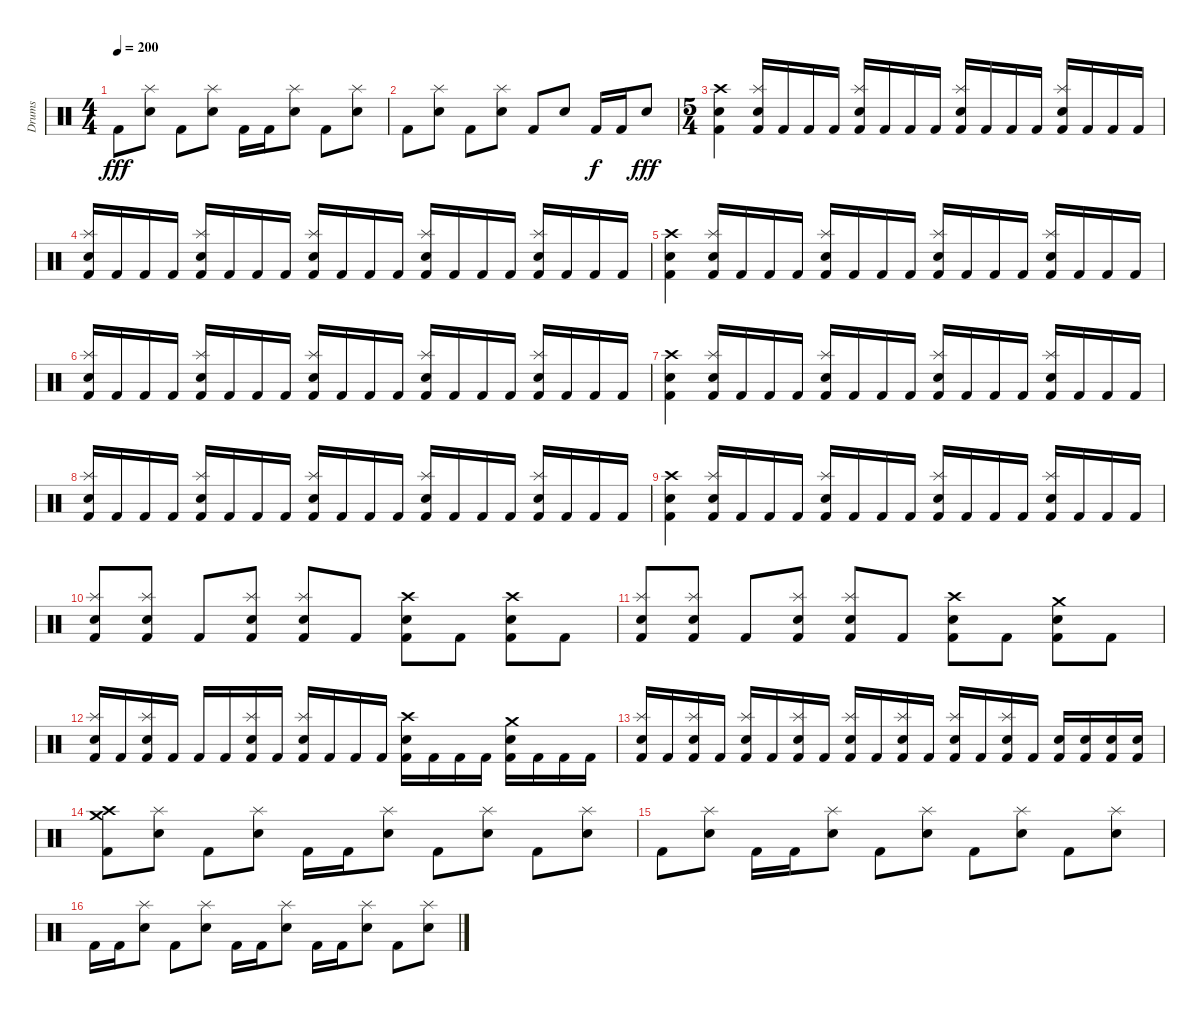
\track ("Drums" "Drums") {instrument percussion}
\staff {score}
\articulation defaults
\ts (4 4)
\tempo 200
\clef neutral
\ks c "Kick (hit) 2".8{dy fff}
("Splash (hit)" "Snare (hit) 2").8 "Kick (hit) 2".8 ("Splash (hit)" "Snare (hit) 2").8 "Kick (hit) 2".16 "Kick (hit) 2".16 ("Splash (hit)" "Snare (hit) 2").8 "Kick (hit) 2".8 ("Splash (hit)" "Snare (hit) 2").8 |
"Kick (hit) 2".8 ("Splash (hit)" "Snare (hit) 2").8 "Kick (hit) 2".8 ("Splash (hit)" "Snare (hit) 2").8 "Kick (hit) 2".8 "Snare (hit) 2".8 "Kick (hit) 2".16{dy f} "Kick (hit) 2".16 "Snare (hit) 2".8{dy fff} |
\ts (5 4)
("Crash high (hit)" "Snare (hit) 2" "Kick (hit) 2").4 ("Splash (hit)" "Snare (hit) 2" "Kick (hit) 2").16 "Kick (hit) 2".16 "Kick (hit) 2".16 "Kick (hit) 2".16 ("Splash (hit)" "Snare (hit) 2" "Kick (hit) 2").16 "Kick (hit) 2".16 "Kick (hit) 2".16 "Kick (hit) 2".16 ("Splash (hit)" "Snare (hit) 2" "Kick (hit) 2").16 "Kick (hit) 2".16 "Kick (hit) 2".16 "Kick (hit) 2".16 ("Splash (hit)" "Snare (hit) 2" "Kick (hit) 2").16 "Kick (hit) 2".16 "Kick (hit) 2".16 "Kick (hit) 2".16 |
("Splash (hit)" "Snare (hit) 2" "Kick (hit) 2").16 "Kick (hit) 2".16 "Kick (hit) 2".16 "Kick (hit) 2".16 ("Splash (hit)" "Snare (hit) 2" "Kick (hit) 2").16 "Kick (hit) 2".16 "Kick (hit) 2".16 "Kick (hit) 2".16 ("Splash (hit)" "Snare (hit) 2" "Kick (hit) 2").16 "Kick (hit) 2".16 "Kick (hit) 2".16 "Kick (hit) 2".16 ("Splash (hit)" "Snare (hit) 2" "Kick (hit) 2").16 "Kick (hit) 2".16 "Kick (hit) 2".16 "Kick (hit) 2".16 ("Splash (hit)" "Snare (hit) 2" "Kick (hit) 2").16 "Kick (hit) 2".16 "Kick (hit) 2".16 "Kick (hit) 2".16 |
("Crash high (hit)" "Snare (hit) 2" "Kick (hit) 2").4 ("Splash (hit)" "Snare (hit) 2" "Kick (hit) 2").16 "Kick (hit) 2".16 "Kick (hit) 2".16 "Kick (hit) 2".16 ("Splash (hit)" "Snare (hit) 2" "Kick (hit) 2").16 "Kick (hit) 2".16 "Kick (hit) 2".16 "Kick (hit) 2".16 ("Splash (hit)" "Snare (hit) 2" "Kick (hit) 2").16 "Kick (hit) 2".16 "Kick (hit) 2".16 "Kick (hit) 2".16 ("Splash (hit)" "Snare (hit) 2" "Kick (hit) 2").16 "Kick (hit) 2".16 "Kick (hit) 2".16 "Kick (hit) 2".16 |
("Splash (hit)" "Snare (hit) 2" "Kick (hit) 2").16 "Kick (hit) 2".16 "Kick (hit) 2".16 "Kick (hit) 2".16 ("Splash (hit)" "Snare (hit) 2" "Kick (hit) 2").16 "Kick (hit) 2".16 "Kick (hit) 2".16 "Kick (hit) 2".16 ("Splash (hit)" "Snare (hit) 2" "Kick (hit) 2").16 "Kick (hit) 2".16 "Kick (hit) 2".16 "Kick (hit) 2".16 ("Splash (hit)" "Snare (hit) 2" "Kick (hit) 2").16 "Kick (hit) 2".16 "Kick (hit) 2".16 "Kick (hit) 2".16 ("Splash (hit)" "Snare (hit) 2" "Kick (hit) 2").16 "Kick (hit) 2".16 "Kick (hit) 2".16 "Kick (hit) 2".16 |
("Crash high (hit)" "Snare (hit) 2" "Kick (hit) 2").4 ("Splash (hit)" "Snare (hit) 2" "Kick (hit) 2").16 "Kick (hit) 2".16 "Kick (hit) 2".16 "Kick (hit) 2".16 ("Splash (hit)" "Snare (hit) 2" "Kick (hit) 2").16 "Kick (hit) 2".16 "Kick (hit) 2".16 "Kick (hit) 2".16 ("Splash (hit)" "Snare (hit) 2" "Kick (hit) 2").16 "Kick (hit) 2".16 "Kick (hit) 2".16 "Kick (hit) 2".16 ("Splash (hit)" "Snare (hit) 2" "Kick (hit) 2").16 "Kick (hit) 2".16 "Kick (hit) 2".16 "Kick (hit) 2".16 |
("Splash (hit)" "Snare (hit) 2" "Kick (hit) 2").16 "Kick (hit) 2".16 "Kick (hit) 2".16 "Kick (hit) 2".16 ("Splash (hit)" "Snare (hit) 2" "Kick (hit) 2").16 "Kick (hit) 2".16 "Kick (hit) 2".16 "Kick (hit) 2".16 ("Splash (hit)" "Snare (hit) 2" "Kick (hit) 2").16 "Kick (hit) 2".16 "Kick (hit) 2".16 "Kick (hit) 2".16 ("Splash (hit)" "Snare (hit) 2" "Kick (hit) 2").16 "Kick (hit) 2".16 "Kick (hit) 2".16 "Kick (hit) 2".16 ("Splash (hit)" "Snare (hit) 2" "Kick (hit) 2").16 "Kick (hit) 2".16 "Kick (hit) 2".16 "Kick (hit) 2".16 |
("Crash high (hit)" "Snare (hit) 2" "Kick (hit) 2").4 ("Splash (hit)" "Snare (hit) 2" "Kick (hit) 2").16 "Kick (hit) 2".16 "Kick (hit) 2".16 "Kick (hit) 2".16 ("Splash (hit)" "Snare (hit) 2" "Kick (hit) 2").16 "Kick (hit) 2".16 "Kick (hit) 2".16 "Kick (hit) 2".16 ("Splash (hit)" "Snare (hit) 2" "Kick (hit) 2").16 "Kick (hit) 2".16 "Kick (hit) 2".16 "Kick (hit) 2".16 ("Splash (hit)" "Snare (hit) 2" "Kick (hit) 2").16 "Kick (hit) 2".16 "Kick (hit) 2".16 "Kick (hit) 2".16 |
("Splash (hit)" "Snare (hit) 2" "Kick (hit) 2").8 ("Splash (hit)" "Snare (hit) 2" "Kick (hit) 2").8 "Kick (hit) 2".8 ("Splash (hit)" "Snare (hit) 2" "Kick (hit) 2").8 ("Splash (hit)" "Snare (hit) 2" "Kick (hit) 2").8 "Kick (hit) 2".8 ("Crash high (hit)" "Snare (hit) 2" "Kick (hit) 2").8 "Kick (hit) 2".8 ("Crash high (hit)" "Snare (hit) 2" "Kick (hit) 2").8 "Kick (hit) 2".8 |
("Splash (hit)" "Snare (hit) 2" "Kick (hit) 2").8 ("Splash (hit)" "Snare (hit) 2" "Kick (hit) 2").8 "Kick (hit) 2".8 ("Splash (hit)" "Snare (hit) 2" "Kick (hit) 2").8 ("Splash (hit)" "Snare (hit) 2" "Kick (hit) 2").8 "Kick (hit) 2".8 ("Crash high (hit)" "Snare (hit) 2" "Kick (hit) 2").8 "Kick (hit) 2".8 ("Crash medium (hit)" "Snare (hit) 2" "Kick (hit) 2").8 "Kick (hit) 2".8 |
("Splash (hit)" "Snare (hit) 2" "Kick (hit) 2").16 "Kick (hit) 2".16 ("Splash (hit)" "Snare (hit) 2" "Kick (hit) 2").16 "Kick (hit) 2".16 "Kick (hit) 2".16 "Kick (hit) 2".16 ("Splash (hit)" "Snare (hit) 2" "Kick (hit) 2").16 "Kick (hit) 2".16 ("Splash (hit)" "Snare (hit) 2" "Kick (hit) 2").16 "Kick (hit) 2".16 "Kick (hit) 2".16 "Kick (hit) 2".16 ("Crash high (hit)" "Snare (hit) 2" "Kick (hit) 2").16 "Kick (hit) 2".16 "Kick (hit) 2".16 "Kick (hit) 2".16 ("Crash medium (hit)" "Snare (hit) 2" "Kick (hit) 2").16 "Kick (hit) 2".16 "Kick (hit) 2".16 "Kick (hit) 2".16 |
("Splash (hit)" "Snare (hit) 2" "Kick (hit) 2").16 "Kick (hit) 2".16 ("Splash (hit)" "Snare (hit) 2" "Kick (hit) 2").16 "Kick (hit) 2".16 ("Splash (hit)" "Snare (hit) 2" "Kick (hit) 2").16 "Kick (hit) 2".16 ("Splash (hit)" "Snare (hit) 2" "Kick (hit) 2").16 "Kick (hit) 2".16 ("Splash (hit)" "Snare (hit) 2" "Kick (hit) 2").16 "Kick (hit) 2".16 ("Splash (hit)" "Snare (hit) 2" "Kick (hit) 2").16 "Kick (hit) 2".16 ("Splash (hit)" "Snare (hit) 2" "Kick (hit) 2").16 "Kick (hit) 2".16 ("Splash (hit)" "Snare (hit) 2" "Kick (hit) 2").16 "Kick (hit) 2".16 ("Snare (hit) 2" "Kick (hit) 2").16 ("Snare (hit) 2" "Kick (hit) 2").16 ("Snare (hit) 2" "Kick (hit) 2").16 ("Snare (hit) 2" "Kick (hit) 2").16 |
("Crash high (hit)" "Crash medium (hit)" "Kick (hit) 2").8 ("Splash (hit)" "Snare (hit) 2").8 "Kick (hit) 2".8 ("Splash (hit)" "Snare (hit) 2").8 "Kick (hit) 2".16 "Kick (hit) 2".16 ("Splash (hit)" "Snare (hit) 2").8 "Kick (hit) 2".8 ("Splash (hit)" "Snare (hit) 2").8 "Kick (hit) 2".8 ("Splash (hit)" "Snare (hit) 2").8 |
"Kick (hit) 2".8 ("Splash (hit)" "Snare (hit) 2").8 "Kick (hit) 2".16 "Kick (hit) 2".16 ("Splash (hit)" "Snare (hit) 2").8 "Kick (hit) 2".8 ("Splash (hit)" "Snare (hit) 2").8 "Kick (hit) 2".8 ("Splash (hit)" "Snare (hit) 2").8 "Kick (hit) 2".8 ("Splash (hit)" "Snare (hit) 2").8 |
"Kick (hit) 2".16 "Kick (hit) 2".16 ("Splash (hit)" "Snare (hit) 2").8 "Kick (hit) 2".8 ("Splash (hit)" "Snare (hit) 2").8 "Kick (hit) 2".16 "Kick (hit) 2".16 ("Splash (hit)" "Snare (hit) 2").8 "Kick (hit) 2".16 "Kick (hit) 2".16 ("Splash (hit)" "Snare (hit) 2").8 "Kick (hit) 2".8 ("Splash (hit)" "Snare (hit) 2").8
